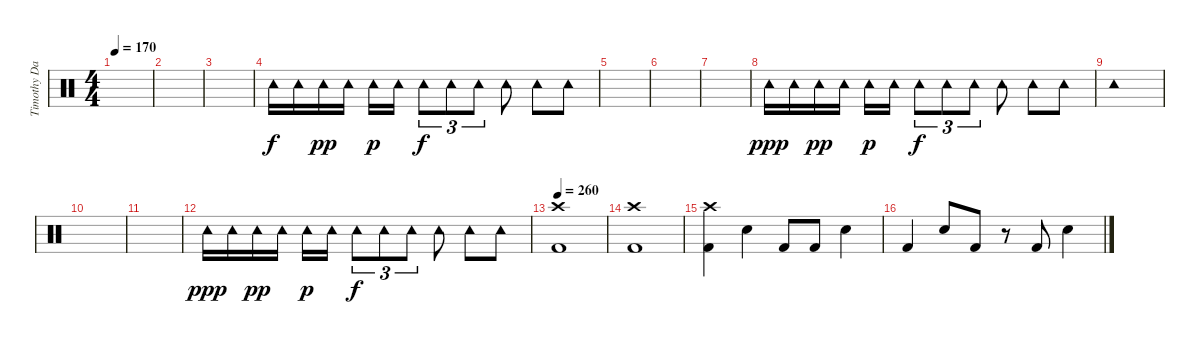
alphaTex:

\track ("Timothy David Bollinger" "Timothy Da") {instrument percussion}
\staff {score}
\articulation defaults
\ts (4 4)
\tempo 170
\clef neutral
\ks c
|
|
|
"Tambourine (hit)".16 "Tambourine (hit)".16 "Tambourine (hit)".16{dy pp} "Tambourine (hit)".16 "Tambourine (hit)".16{dy p} "Tambourine (hit)".16 "Tambourine (hit)".8{tu (3 2) dy f} "Tambourine (hit)".8{tu (3 2)} "Tambourine (hit)".8{tu (3 2)} "Tambourine (hit)".8 "Tambourine (hit)".8 "Tambourine (hit)".8 |
|
|
|
"Tambourine (hit)".16{dy ppp} "Tambourine (hit)".16 "Tambourine (hit)".16{dy pp} "Tambourine (hit)".16 "Tambourine (hit)".16{dy p} "Tambourine (hit)".16 "Tambourine (hit)".8{tu (3 2) dy f} "Tambourine (hit)".8{tu (3 2)} "Tambourine (hit)".8{tu (3 2)} "Tambourine (hit)".8 "Tambourine (hit)".8 "Tambourine (hit)".8 |
"Tambourine (hit)".1 |
|
|
"Tambourine (hit)".16{dy ppp} "Tambourine (hit)".16 "Tambourine (hit)".16{dy pp} "Tambourine (hit)".16 "Tambourine (hit)".16{dy p} "Tambourine (hit)".16 "Tambourine (hit)".8{tu (3 2) dy f} "Tambourine (hit)".8{tu (3 2)} "Tambourine (hit)".8{tu (3 2)} "Tambourine (hit)".8 "Tambourine (hit)".8 "Tambourine (hit)".8 |
\tempo 260
("Crash high (hit)" "Kick (hit) 2").1 |
("Crash high (hit)" "Kick (hit) 2").1 |
("Crash high (hit)" "Kick (hit) 2").4 "Electric Snare (hit)".4 "Kick (hit) 2".8 "Kick (hit) 2".8 "Electric Snare (hit)".4 |
"Kick (hit) 2".4 "Electric Snare (hit)".8 "Kick (hit) 2".8 r.8 "Kick (hit) 2".8 "Electric Snare (hit)".4
